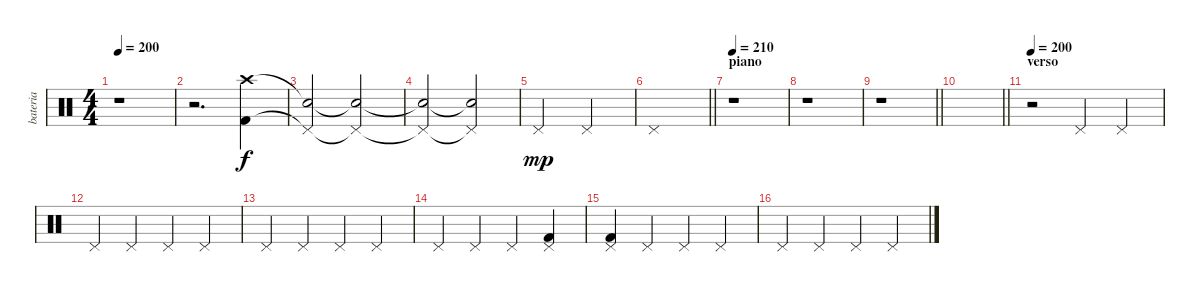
\track ("bateria" "bateria") {instrument percussion}
\staff {score}
\articulation defaults
\ts (4 4)
\tempo 200
\clef neutral
\ks c
r.1{dy p} |
r.2{d} ("Kick (hit) 2" "Crash high (hit)").4{dy f} |
("Pedal Hi-Hat (hit)"{t} "Snare (hit)"{t}).2 ("Pedal Hi-Hat (hit)"{t} "Snare (hit)"{t}).2 |
("Pedal Hi-Hat (hit)"{t} "Snare (hit)"{t}).2 ("Pedal Hi-Hat (hit)"{t} "Snare (hit)"{t}).2 |
"Pedal Hi-Hat (hit)".2{dy mp} "Pedal Hi-Hat (hit)".2 |
\barLineRight lightlight "Pedal Hi-Hat (hit)".1
|
\section ("" "piano")
\tempo 210
r.1 |
r.1 |
\barLineRight lightlight
r.1 |
\barLineRight lightlight
|
\section ("" "verso")
\tempo 190
\tempo 200
r.2 "Pedal Hi-Hat (hit)".4 "Pedal Hi-Hat (hit)".4 |
"Pedal Hi-Hat (hit)".4 "Pedal Hi-Hat (hit)".4 "Pedal Hi-Hat (hit)".4 "Pedal Hi-Hat (hit)".4 |
"Pedal Hi-Hat (hit)".4 "Pedal Hi-Hat (hit)".4 "Pedal Hi-Hat (hit)".4 "Pedal Hi-Hat (hit)".4 |
"Pedal Hi-Hat (hit)".4 "Pedal Hi-Hat (hit)".4 "Pedal Hi-Hat (hit)".4 ("Pedal Hi-Hat (hit)" "Kick (hit) 2").4 |
("Pedal Hi-Hat (hit)" "Kick (hit) 2").4 "Pedal Hi-Hat (hit)".4 "Pedal Hi-Hat (hit)".4 "Pedal Hi-Hat (hit)".4 |
"Pedal Hi-Hat (hit)".4 "Pedal Hi-Hat (hit)".4 "Pedal Hi-Hat (hit)".4 "Pedal Hi-Hat (hit)".4
